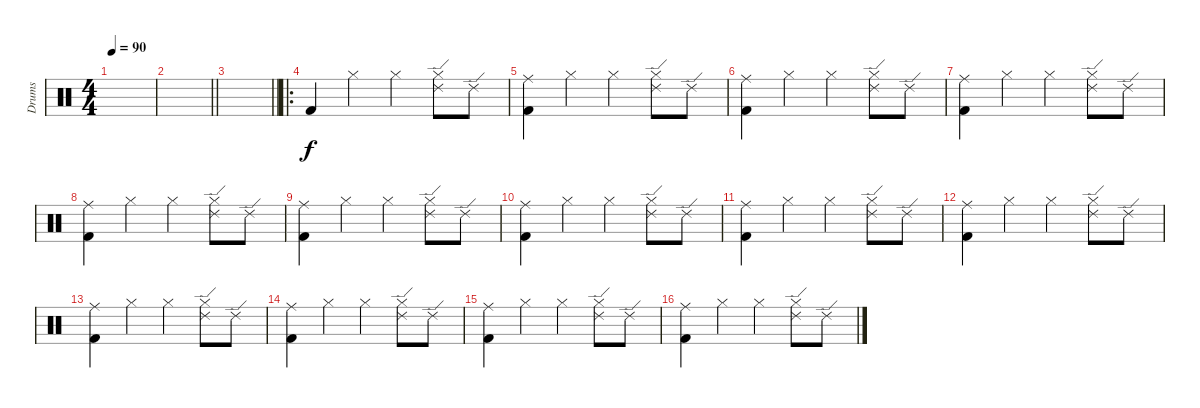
\track ("Drums" "Drums") {instrument percussion}
\staff {score}
\articulation defaults
\ts (4 4)
\tempo 90
\clef neutral
\ks c
|
\barLineRight lightlight
|
\barLineRight lightlight
|
\ro "Kick (hit) 2".4 "Hi-Hat (closed)".4 "Hi-Hat (closed)".4
("Hi-Hat (closed)" "Ride (edge) 2").8 "Ride (edge) 2".8 |
("Ride (middle)" "Kick (hit) 2").4 "Hi-Hat (closed)".4 "Hi-Hat (closed)".4 ("Hi-Hat (closed)" "Ride (edge) 2").8 "Ride (edge) 2".8 |
("Ride (middle)" "Kick (hit) 2").4 "Hi-Hat (closed)".4 "Hi-Hat (closed)".4 ("Hi-Hat (closed)" "Ride (edge) 2").8 "Ride (edge) 2".8 |
("Ride (middle)" "Kick (hit) 2").4 "Hi-Hat (closed)".4 "Hi-Hat (closed)".4 ("Hi-Hat (closed)" "Ride (edge) 2").8 "Ride (edge) 2".8 |
("Ride (middle)" "Kick (hit) 2").4 "Hi-Hat (closed)".4 "Hi-Hat (closed)".4 ("Hi-Hat (closed)" "Ride (edge) 2").8 "Ride (edge) 2".8 |
("Ride (middle)" "Kick (hit) 2").4 "Hi-Hat (closed)".4 "Hi-Hat (closed)".4 ("Hi-Hat (closed)" "Ride (edge) 2").8 "Ride (edge) 2".8 |
("Ride (middle)" "Kick (hit) 2").4 "Hi-Hat (closed)".4 "Hi-Hat (closed)".4 ("Hi-Hat (closed)" "Ride (edge) 2").8 "Ride (edge) 2".8 |
("Ride (middle)" "Kick (hit) 2").4 "Hi-Hat (closed)".4 "Hi-Hat (closed)".4 ("Hi-Hat (closed)" "Ride (edge) 2").8 "Ride (edge) 2".8 |
("Ride (middle)" "Kick (hit) 2").4 "Hi-Hat (closed)".4 "Hi-Hat (closed)".4 ("Hi-Hat (closed)" "Ride (edge) 2").8 "Ride (edge) 2".8 |
("Ride (middle)" "Kick (hit) 2").4 "Hi-Hat (closed)".4 "Hi-Hat (closed)".4 ("Hi-Hat (closed)" "Ride (edge) 2").8 "Ride (edge) 2".8 |
("Ride (middle)" "Kick (hit) 2").4 "Hi-Hat (closed)".4 "Hi-Hat (closed)".4 ("Hi-Hat (closed)" "Ride (edge) 2").8 "Ride (edge) 2".8 |
("Ride (middle)" "Kick (hit) 2").4 "Hi-Hat (closed)".4 "Hi-Hat (closed)".4 ("Hi-Hat (closed)" "Ride (edge) 2").8 "Ride (edge) 2".8 |
("Ride (middle)" "Kick (hit) 2").4 "Hi-Hat (closed)".4 "Hi-Hat (closed)".4 ("Hi-Hat (closed)" "Ride (edge) 2").8 "Ride (edge) 2".8
